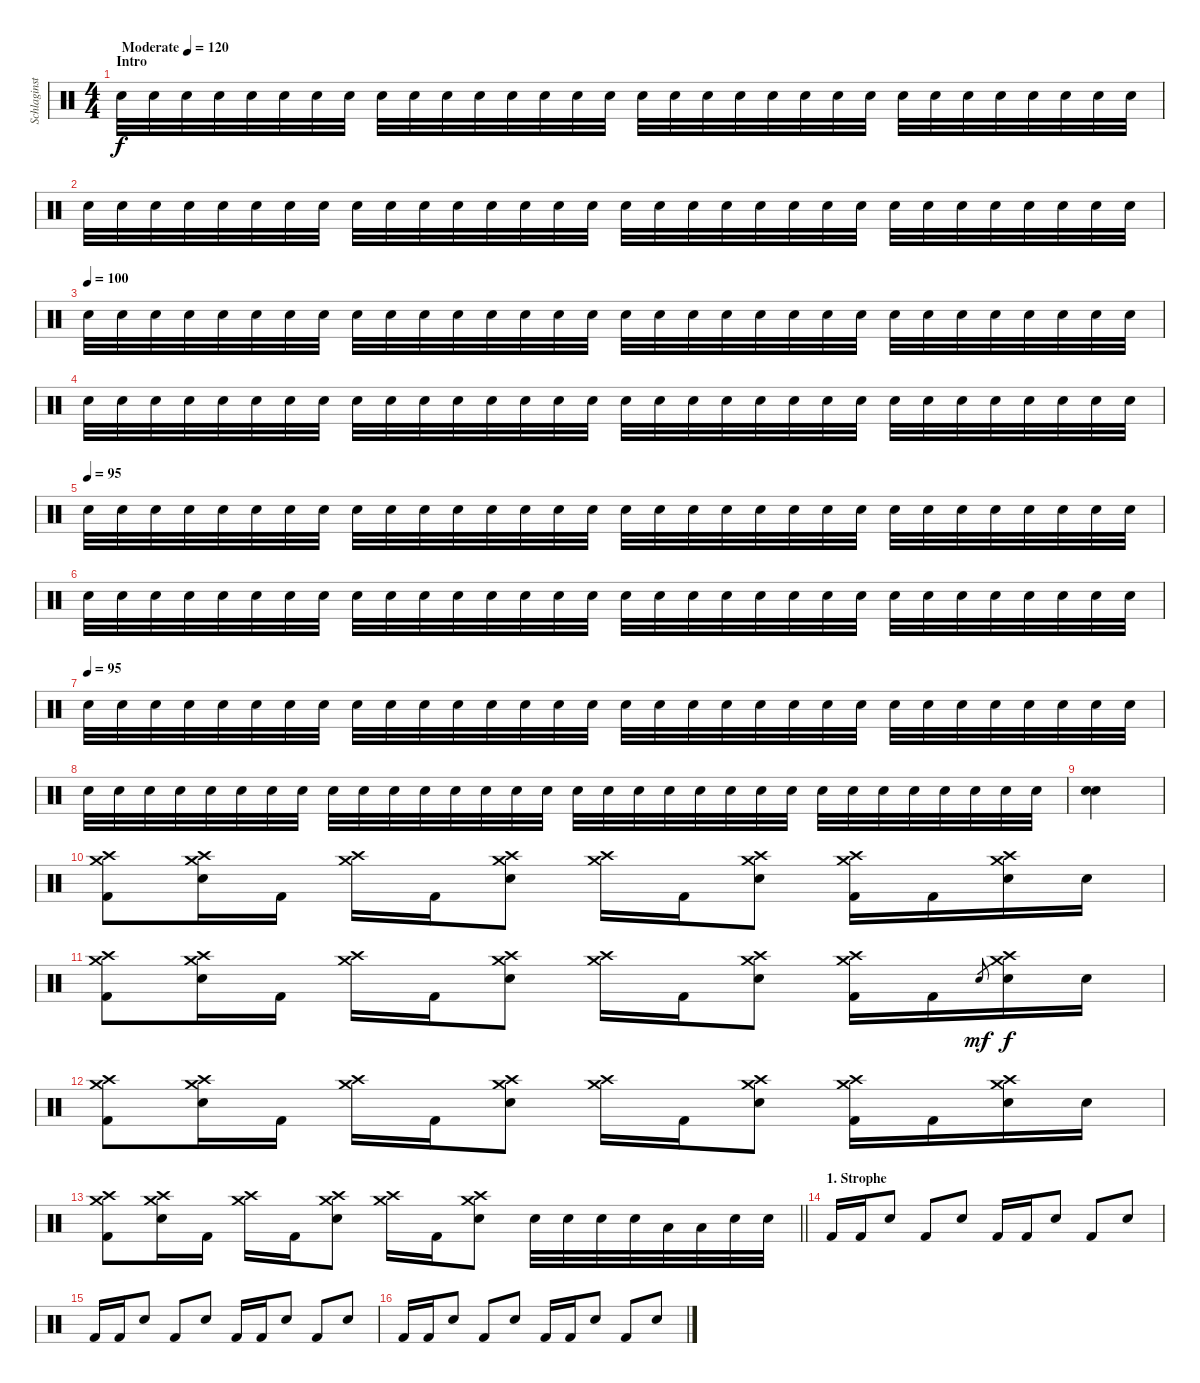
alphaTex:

\track ("Schlaginstrumente - Auswahl" "Schlaginst") {instrument percussion}
\staff {score}
\articulation defaults
\ts (4 4)
\section ("" "Intro")
\tempo (120 "Moderate")
\tempo 95
\tempo (120 "Moderate")
\clef neutral
\ks c "Electric Snare (hit)".32{dy f volume 8} "Snare (hit) 2".32 "Snare (hit) 2".32 "Snare (hit) 2".32 "Electric Snare (hit)".32 "Snare (hit) 2".32 "Snare (hit) 2".32 "Snare (hit) 2".32 "Electric Snare (hit)".32 "Snare (hit) 2".32 "Snare (hit) 2".32 "Snare (hit) 2".32 "Electric Snare (hit)".32 "Snare (hit) 2".32 "Snare (hit) 2".32 "Snare (hit) 2".32 "Electric Snare (hit)".32 "Snare (hit) 2".32 "Snare (hit) 2".32 "Snare (hit) 2".32 "Electric Snare (hit)".32 "Snare (hit) 2".32 "Snare (hit) 2".32 "Snare (hit) 2".32 "Electric Snare (hit)".32 "Snare (hit) 2".32 "Snare (hit) 2".32 "Snare (hit) 2".32 "Electric Snare (hit)".32 "Snare (hit) 2".32 "Snare (hit) 2".32 "Snare (hit) 2".32
|
"Electric Snare (hit)".32{volume 9} "Snare (hit) 2".32 "Snare (hit) 2".32 "Snare (hit) 2".32 "Electric Snare (hit)".32 "Snare (hit) 2".32 "Snare (hit) 2".32 "Snare (hit) 2".32 "Electric Snare (hit)".32 "Snare (hit) 2".32 "Snare (hit) 2".32 "Snare (hit) 2".32 "Electric Snare (hit)".32 "Snare (hit) 2".32 "Snare (hit) 2".32 "Snare (hit) 2".32 "Electric Snare (hit)".32 "Snare (hit) 2".32 "Snare (hit) 2".32 "Snare (hit) 2".32 "Electric Snare (hit)".32 "Snare (hit) 2".32 "Snare (hit) 2".32 "Snare (hit) 2".32 "Electric Snare (hit)".32 "Snare (hit) 2".32 "Snare (hit) 2".32 "Snare (hit) 2".32 "Electric Snare (hit)".32 "Snare (hit) 2".32 "Snare (hit) 2".32 "Snare (hit) 2".32 |
\tempo (100)
"Electric Snare (hit)".32 "Snare (hit) 2".32 "Snare (hit) 2".32 "Snare (hit) 2".32 "Electric Snare (hit)".32 "Snare (hit) 2".32 "Snare (hit) 2".32 "Snare (hit) 2".32 "Electric Snare (hit)".32 "Snare (hit) 2".32 "Snare (hit) 2".32 "Snare (hit) 2".32 "Electric Snare (hit)".32 "Snare (hit) 2".32 "Snare (hit) 2".32 "Snare (hit) 2".32 "Electric Snare (hit)".32 "Snare (hit) 2".32 "Snare (hit) 2".32 "Snare (hit) 2".32 "Electric Snare (hit)".32 "Snare (hit) 2".32 "Snare (hit) 2".32 "Snare (hit) 2".32 "Electric Snare (hit)".32 "Snare (hit) 2".32 "Snare (hit) 2".32 "Snare (hit) 2".32 "Electric Snare (hit)".32 "Snare (hit) 2".32 "Snare (hit) 2".32 "Snare (hit) 2".32 |
"Electric Snare (hit)".32 "Snare (hit) 2".32 "Snare (hit) 2".32 "Snare (hit) 2".32 "Electric Snare (hit)".32 "Snare (hit) 2".32 "Snare (hit) 2".32 "Snare (hit) 2".32 "Electric Snare (hit)".32 "Snare (hit) 2".32 "Snare (hit) 2".32 "Snare (hit) 2".32 "Electric Snare (hit)".32 "Snare (hit) 2".32 "Snare (hit) 2".32 "Snare (hit) 2".32 "Electric Snare (hit)".32 "Snare (hit) 2".32 "Snare (hit) 2".32 "Snare (hit) 2".32 "Electric Snare (hit)".32 "Snare (hit) 2".32 "Snare (hit) 2".32 "Snare (hit) 2".32 "Electric Snare (hit)".32 "Snare (hit) 2".32 "Snare (hit) 2".32 "Snare (hit) 2".32 "Electric Snare (hit)".32 "Snare (hit) 2".32 "Snare (hit) 2".32 "Snare (hit) 2".32 |
\tempo (95)
"Electric Snare (hit)".32 "Snare (hit) 2".32 "Snare (hit) 2".32 "Snare (hit) 2".32 "Electric Snare (hit)".32 "Snare (hit) 2".32 "Snare (hit) 2".32 "Snare (hit) 2".32 "Electric Snare (hit)".32 "Snare (hit) 2".32 "Snare (hit) 2".32 "Snare (hit) 2".32 "Electric Snare (hit)".32 "Snare (hit) 2".32 "Snare (hit) 2".32 "Snare (hit) 2".32 "Electric Snare (hit)".32 "Snare (hit) 2".32 "Snare (hit) 2".32 "Snare (hit) 2".32 "Electric Snare (hit)".32 "Snare (hit) 2".32 "Snare (hit) 2".32 "Snare (hit) 2".32 "Electric Snare (hit)".32 "Snare (hit) 2".32 "Snare (hit) 2".32 "Snare (hit) 2".32 "Electric Snare (hit)".32 "Snare (hit) 2".32 "Snare (hit) 2".32 "Snare (hit) 2".32 |
"Electric Snare (hit)".32 "Snare (hit) 2".32 "Snare (hit) 2".32 "Snare (hit) 2".32 "Electric Snare (hit)".32 "Snare (hit) 2".32 "Snare (hit) 2".32 "Snare (hit) 2".32 "Electric Snare (hit)".32 "Snare (hit) 2".32 "Snare (hit) 2".32 "Snare (hit) 2".32 "Electric Snare (hit)".32 "Snare (hit) 2".32 "Snare (hit) 2".32 "Snare (hit) 2".32 "Electric Snare (hit)".32 "Snare (hit) 2".32 "Snare (hit) 2".32 "Snare (hit) 2".32 "Electric Snare (hit)".32 "Snare (hit) 2".32 "Snare (hit) 2".32 "Snare (hit) 2".32 "Electric Snare (hit)".32 "Snare (hit) 2".32 "Snare (hit) 2".32 "Snare (hit) 2".32 "Electric Snare (hit)".32 "Snare (hit) 2".32 "Snare (hit) 2".32 "Snare (hit) 2".32 |
\tempo (95)
"Electric Snare (hit)".32{volume 12} "Snare (hit) 2".32 "Snare (hit) 2".32 "Snare (hit) 2".32 "Electric Snare (hit)".32 "Snare (hit) 2".32 "Snare (hit) 2".32 "Snare (hit) 2".32 "Electric Snare (hit)".32 "Snare (hit) 2".32 "Snare (hit) 2".32 "Snare (hit) 2".32 "Electric Snare (hit)".32 "Snare (hit) 2".32 "Snare (hit) 2".32 "Snare (hit) 2".32 "Electric Snare (hit)".32 "Snare (hit) 2".32 "Snare (hit) 2".32 "Snare (hit) 2".32 "Electric Snare (hit)".32 "Snare (hit) 2".32 "Snare (hit) 2".32 "Snare (hit) 2".32 "Electric Snare (hit)".32 "Snare (hit) 2".32 "Snare (hit) 2".32 "Snare (hit) 2".32 "Electric Snare (hit)".32 "Snare (hit) 2".32 "Snare (hit) 2".32 "Snare (hit) 2".32 |
"Electric Snare (hit)".32 "Snare (hit) 2".32 "Snare (hit) 2".32 "Snare (hit) 2".32 "Electric Snare (hit)".32 "Snare (hit) 2".32 "Snare (hit) 2".32 "Snare (hit) 2".32 "Electric Snare (hit)".32 "Snare (hit) 2".32 "Snare (hit) 2".32 "Snare (hit) 2".32 "Electric Snare (hit)".32 "Snare (hit) 2".32 "Snare (hit) 2".32 "Snare (hit) 2".32 "Electric Snare (hit)".32 "Snare (hit) 2".32 "Snare (hit) 2".32 "Snare (hit) 2".32 "Electric Snare (hit)".32 "Snare (hit) 2".32 "Snare (hit) 2".32 "Snare (hit) 2".32 "Electric Snare (hit)".32 "Snare (hit) 2".32 "Snare (hit) 2".32 "Snare (hit) 2".32 "Electric Snare (hit)".32 "Snare (hit) 2".32 "Snare (hit) 2".32 "Snare (hit) 2".32 |
("Electric Snare (hit)" "Snare (hit) 2").4 |
("Crash high (hit)" "Crash medium (hit)" "Kick (hit) 2").8 ("Crash high (hit)" "Crash medium (hit)" "Electric Snare (hit)").16 "Kick (hit) 2".16 ("Crash high (hit)" "Crash medium (hit)").16 "Kick (hit) 2".16 ("Crash high (hit)" "Crash medium (hit)" "Electric Snare (hit)").8 ("Crash high (hit)" "Crash medium (hit)").16 "Kick (hit) 2".16 ("Crash high (hit)" "Crash medium (hit)" "Electric Snare (hit)").8 ("Crash high (hit)" "Crash medium (hit)" "Kick (hit) 2").16 "Kick (hit) 2".16 ("Crash high (hit)" "Crash medium (hit)" "Electric Snare (hit)").16 "Electric Snare (hit)".16 |
("Crash high (hit)" "Crash medium (hit)" "Kick (hit) 2").8 ("Crash high (hit)" "Crash medium (hit)" "Electric Snare (hit)").16 "Kick (hit) 2".16 ("Crash high (hit)" "Crash medium (hit)").16 "Kick (hit) 2".16 ("Crash high (hit)" "Crash medium (hit)" "Electric Snare (hit)").8 ("Crash high (hit)" "Crash medium (hit)").16 "Kick (hit) 2".16 ("Crash high (hit)" "Crash medium (hit)" "Electric Snare (hit)").8 ("Crash high (hit)" "Crash medium (hit)" "Kick (hit) 2").16 "Kick (hit) 2".16 "Electric Snare (hit)".8{gr dy mf} ("Crash high (hit)" "Crash medium (hit)" "Electric Snare (hit)").16{dy f} "Electric Snare (hit)".16 |
("Crash high (hit)" "Crash medium (hit)" "Kick (hit) 2").8 ("Crash high (hit)" "Crash medium (hit)" "Electric Snare (hit)").16 "Kick (hit) 2".16 ("Crash high (hit)" "Crash medium (hit)").16 "Kick (hit) 2".16 ("Crash high (hit)" "Crash medium (hit)" "Electric Snare (hit)").8 ("Crash high (hit)" "Crash medium (hit)").16 "Kick (hit) 2".16 ("Crash high (hit)" "Crash medium (hit)" "Electric Snare (hit)").8 ("Crash high (hit)" "Crash medium (hit)" "Kick (hit) 2").16 "Kick (hit) 2".16 ("Crash high (hit)" "Crash medium (hit)" "Electric Snare (hit)").16 "Electric Snare (hit)".16 |
\barLineRight lightlight
("Crash high (hit)" "Crash medium (hit)" "Kick (hit) 2").8 ("Crash high (hit)" "Crash medium (hit)" "Electric Snare (hit)").16 "Kick (hit) 2".16 ("Crash high (hit)" "Crash medium (hit)").16 "Kick (hit) 2".16 ("Crash high (hit)" "Crash medium (hit)" "Electric Snare (hit)").8 ("Crash high (hit)" "Crash medium (hit)").16 "Kick (hit) 2".16 ("Crash high (hit)" "Crash medium (hit)" "Electric Snare (hit)").8 "Electric Snare (hit)".32 "Electric Snare (hit)".32 "Electric Snare (hit)".32 "Electric Snare (hit)".32 "Low Tom (hit)".32 "Low Tom (hit)".32 "Electric Snare (hit)".32 "Electric Snare (hit)".32 |
\section ("" "1. Strophe")
"Kick (hit) 2".16 "Kick (hit) 2".16 "Electric Snare (hit)".8 "Kick (hit) 2".8 "Electric Snare (hit)".8 "Kick (hit) 2".16 "Kick (hit) 2".16 "Electric Snare (hit)".8 "Kick (hit) 2".8 "Electric Snare (hit)".8 |
"Kick (hit) 2".16 "Kick (hit) 2".16 "Electric Snare (hit)".8 "Kick (hit) 2".8 "Electric Snare (hit)".8 "Kick (hit) 2".16 "Kick (hit) 2".16 "Electric Snare (hit)".8 "Kick (hit) 2".8 "Electric Snare (hit)".8 |
"Kick (hit) 2".16 "Kick (hit) 2".16 "Electric Snare (hit)".8 "Kick (hit) 2".8 "Electric Snare (hit)".8 "Kick (hit) 2".16 "Kick (hit) 2".16 "Electric Snare (hit)".8 "Kick (hit) 2".8 "Electric Snare (hit)".8
